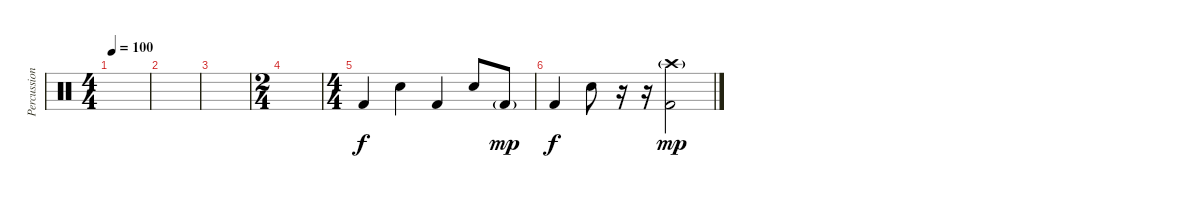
\track ("Percussion" "Percussion") {instrument percussion}
\staff {score}
\articulation defaults
\ts (4 4)
\tempo 100
\clef neutral
\ks c
|
|
|
\ts (2 4)
|
\ts (4 4)
"Kick (hit) 2".4{dy f} "Snare (hit) 2".4 "Kick (hit) 2".4 "Snare (hit) 2".8 "Kick (hit) 2"{g}.8{dy mp} |
"Kick (hit) 2".4{dy f} "Snare (hit) 2".8 r.16 r.16 ("Crash high (hit)"{g} "Kick (hit) 2").2{dy mp}
